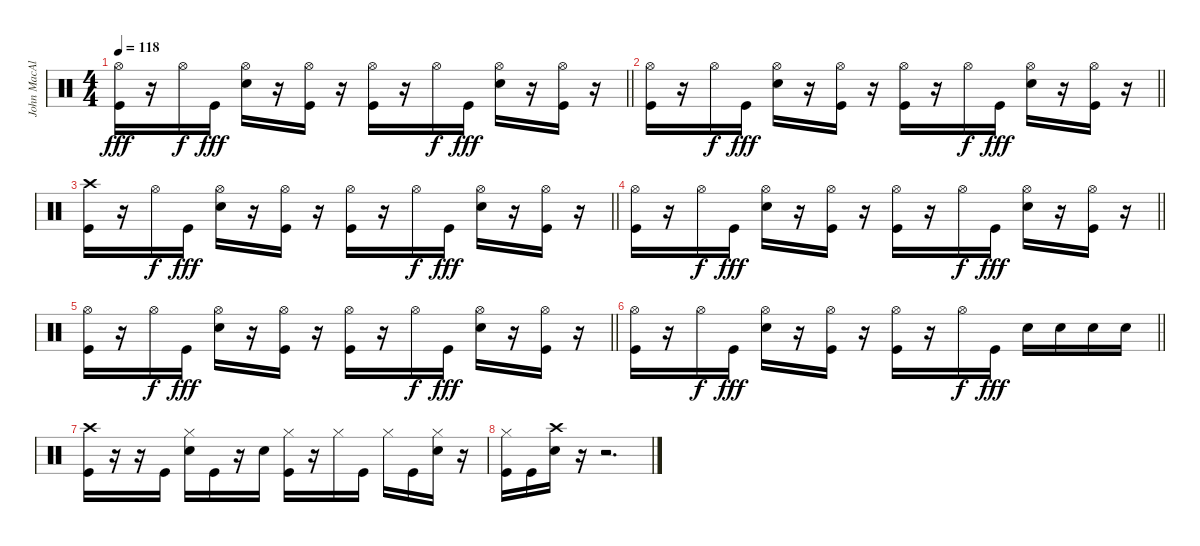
\track ("John MacAluso" "John MacAl") {instrument percussion}
\staff {score}
\articulation defaults
\ts (4 4)
\tempo 118
\clef neutral
\barLineRight lightlight
\ks c
("Hi-Hat (open)" "Kick (hit)").16{dy fff} r.16 "Hi-Hat (open)".16{dy f} "Kick (hit)".16{dy fff} ("Hi-Hat (open)" "Electric Snare (hit)").16 r.16 ("Hi-Hat (open)" "Kick (hit)").16 r.16 ("Hi-Hat (open)" "Kick (hit)").16 r.16 "Hi-Hat (open)".16{dy f} "Kick (hit)".16{dy fff} ("Hi-Hat (open)" "Electric Snare (hit)").16 r.16 ("Hi-Hat (open)" "Kick (hit)").16 r.16 |
\barLineRight lightlight
("Hi-Hat (open)" "Kick (hit)").16 r.16 "Hi-Hat (open)".16{dy f} "Kick (hit)".16{dy fff} ("Hi-Hat (open)" "Electric Snare (hit)").16 r.16 ("Hi-Hat (open)" "Kick (hit)").16 r.16 ("Hi-Hat (open)" "Kick (hit)").16 r.16 "Hi-Hat (open)".16{dy f} "Kick (hit)".16{dy fff} ("Hi-Hat (open)" "Electric Snare (hit)").16 r.16 ("Hi-Hat (open)" "Kick (hit)").16 r.16 |
\barLineRight lightlight
("Crash high (hit)" "Kick (hit)").16 r.16 "Hi-Hat (open)".16{dy f} "Kick (hit)".16{dy fff} ("Hi-Hat (open)" "Electric Snare (hit)").16 r.16 ("Hi-Hat (open)" "Kick (hit)").16 r.16 ("Hi-Hat (open)" "Kick (hit)").16 r.16 "Hi-Hat (open)".16{dy f} "Kick (hit)".16{dy fff} ("Hi-Hat (open)" "Electric Snare (hit)").16 r.16 ("Hi-Hat (open)" "Kick (hit)").16 r.16 |
\barLineRight lightlight
("Hi-Hat (open)" "Kick (hit)").16 r.16 "Hi-Hat (open)".16{dy f} "Kick (hit)".16{dy fff} ("Hi-Hat (open)" "Electric Snare (hit)").16 r.16 ("Hi-Hat (open)" "Kick (hit)").16 r.16 ("Hi-Hat (open)" "Kick (hit)").16 r.16 "Hi-Hat (open)".16{dy f} "Kick (hit)".16{dy fff} ("Hi-Hat (open)" "Electric Snare (hit)").16 r.16 ("Hi-Hat (open)" "Kick (hit)").16 r.16 |
\barLineRight lightlight
("Hi-Hat (open)" "Kick (hit)").16 r.16 "Hi-Hat (open)".16{dy f} "Kick (hit)".16{dy fff} ("Hi-Hat (open)" "Electric Snare (hit)").16 r.16 ("Hi-Hat (open)" "Kick (hit)").16 r.16 ("Hi-Hat (open)" "Kick (hit)").16 r.16 "Hi-Hat (open)".16{dy f} "Kick (hit)".16{dy fff} ("Hi-Hat (open)" "Electric Snare (hit)").16 r.16 ("Hi-Hat (open)" "Kick (hit)").16 r.16 |
\barLineRight lightlight
("Hi-Hat (open)" "Kick (hit)").16 r.16 "Hi-Hat (open)".16{dy f} "Kick (hit)".16{dy fff} ("Hi-Hat (open)" "Electric Snare (hit)").16 r.16 ("Hi-Hat (open)" "Kick (hit)").16 r.16 ("Hi-Hat (open)" "Kick (hit)").16 r.16 "Hi-Hat (open)".16{dy f} "Kick (hit)".16{dy fff} "Electric Snare (hit)".16 "Electric Snare (hit)".16 "Electric Snare (hit)".16 "Electric Snare (hit)".16 |
("Crash high (hit)" "Kick (hit)").16 r.16 r.16 "Kick (hit)".16 ("Hi-Hat (closed)" "Electric Snare (hit)").16 "Kick (hit)".16 r.16 "Electric Snare (hit)".16 ("Hi-Hat (closed)" "Kick (hit)").16 r.16 "Hi-Hat (closed)".16 "Kick (hit)".16 "Hi-Hat (closed)".16 "Kick (hit)".16 ("Hi-Hat (closed)" "Electric Snare (hit)").16 r.16 |
("Hi-Hat (closed)" "Kick (hit)").16 "Kick (hit)".16 ("Crash high (hit)" "Electric Snare (hit)").16 r.16 r.2{d}
